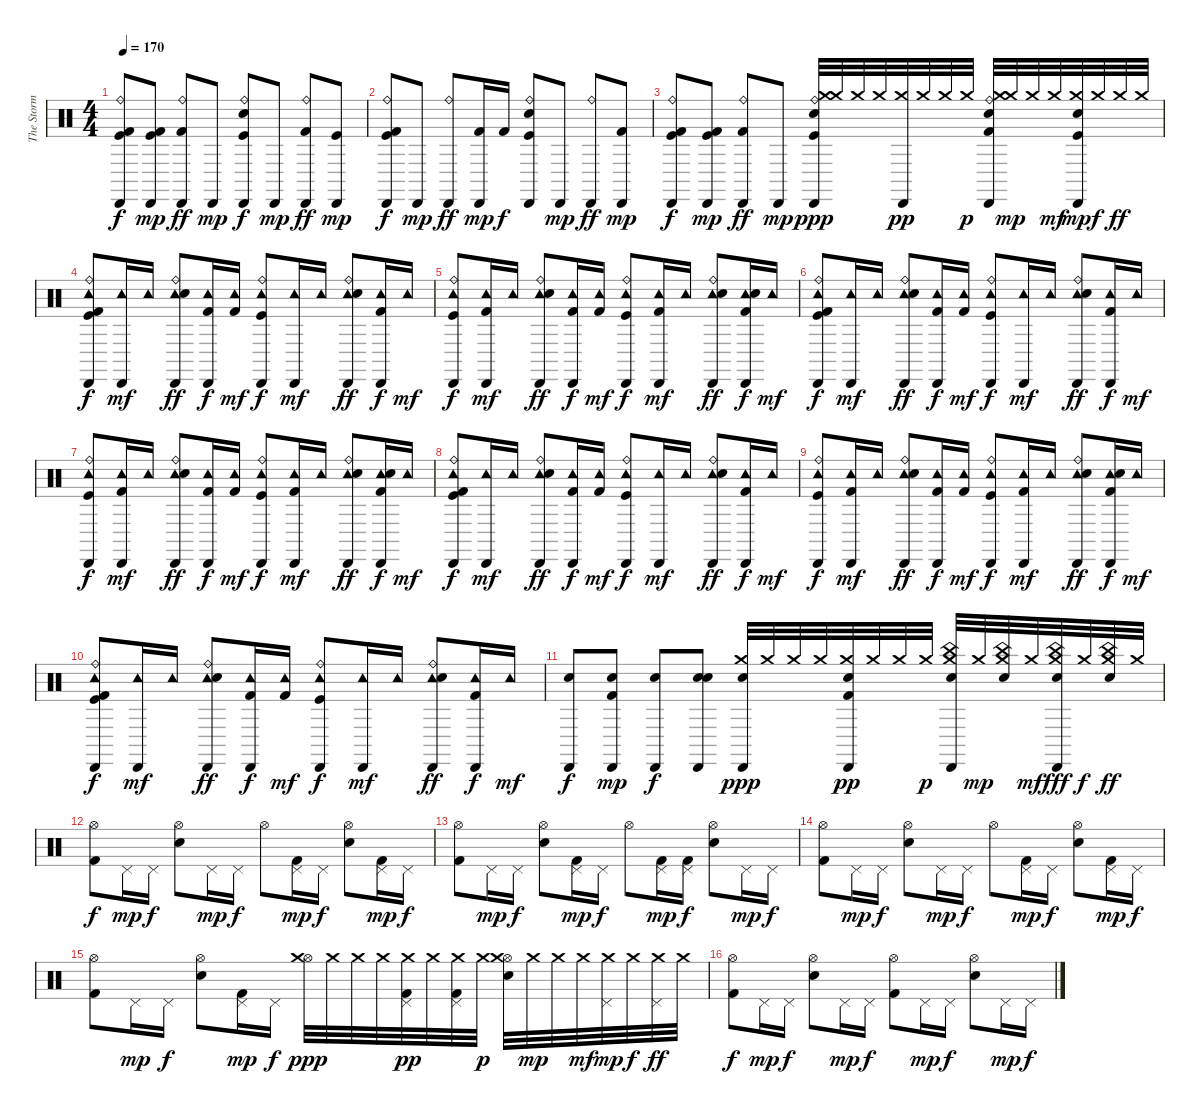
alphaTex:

\track ("The Storm" "The Storm") {instrument percussion}
\staff {score}
\articulation defaults
\ts (4 4)
\tempo 170
\clef neutral
\ks c
("Cabasa (hit)" "Kick (hit)" "Ride (bell)" "Kick (hit) 2").8{dy f} ("Cabasa (hit)" "Kick (hit) 2" "Kick (hit)").8{dy mp} ("Cabasa (hit)" "Kick (hit) 2" "Ride (bell)").8{dy ff} "Cabasa (hit)".8{dy mp} ("Cabasa (hit)" "Electric Snare (hit)" "Ride (bell)" "Kick (hit)").8{dy f} "Cabasa (hit)".8{dy mp} ("Cabasa (hit)" "Kick (hit) 2" "Ride (bell)").8{dy ff} ("Cabasa (hit)" "Kick (hit)").8{dy mp} |
("Cabasa (hit)" "Kick (hit) 2" "Ride (bell)" "Kick (hit)").8{dy f} "Cabasa (hit)".8{dy mp} ("Ride (bell)" "Cabasa (hit)").8{dy ff} ("Kick (hit) 2" "Cabasa (hit)").16{dy mp} "Kick (hit) 2".16{dy f} ("Cabasa (hit)" "Kick (hit)" "Electric Snare (hit)" "Ride (bell)").8 "Cabasa (hit)".8{dy mp} ("Cabasa (hit)" "Ride (bell)").8{dy ff} ("Cabasa (hit)" "Kick (hit) 2").8{dy mp} |
("Cabasa (hit)" "Kick (hit) 2" "Ride (bell)" "Kick (hit)").8{dy f} ("Cabasa (hit)" "Kick (hit) 2" "Kick (hit)").8{dy mp} ("Cabasa (hit)" "Ride (bell)" "Kick (hit) 2").8{dy ff} "Cabasa (hit)".8{dy mp} ("Electric Snare (hit)" "Ride (bell)" "Cabasa (hit)" "Kick (hit)" "Crash medium (hit)").32{dy ppp} "Crash medium (hit)".32 "Crash medium (hit)".32 "Crash medium (hit)".32 ("Cabasa (hit)" "Crash medium (hit)").32{dy pp} "Crash medium (hit)".32 "Crash medium (hit)".32 "Crash medium (hit)".32{dy p} ("Cabasa (hit)" "Electric Snare (hit)" "Kick (hit) 2" "Ride (bell)" "Crash medium (hit)").32 "Crash medium (hit)".32{dy mp} "Crash medium (hit)".32 "Crash medium (hit)".32{dy mf} ("Cabasa (hit)" "Kick (hit)" "Electric Snare (hit)" "Crash medium (hit)").32{dy mp} "Crash medium (hit)".32{dy f} "Crash medium (hit)".32{dy ff} "Crash medium (hit)".32 |
("Cabasa (hit)" "Tambourine (hit)" "Kick (hit) 2" "Ride (bell)" "Kick (hit)").8{dy f} ("Tambourine (hit)" "Cabasa (hit)").16{dy mf} "Tambourine (hit)".16 ("Tambourine (hit)" "Cabasa (hit)" "Ride (bell)" "Electric Snare (hit)").8{dy ff} ("Tambourine (hit)" "Cabasa (hit)" "Kick (hit) 2").16{dy f} ("Tambourine (hit)" "Kick (hit) 2").16{dy mf} ("Tambourine (hit)" "Kick (hit)" "Ride (bell)" "Cabasa (hit)").8{dy f} ("Tambourine (hit)" "Cabasa (hit)").16{dy mf} "Tambourine (hit)".16 ("Tambourine (hit)" "Ride (bell)" "Cabasa (hit)" "Electric Snare (hit)").8{dy ff} ("Tambourine (hit)" "Cabasa (hit)" "Kick (hit) 2").16{dy f} "Tambourine (hit)".16{dy mf} |
("Tambourine (hit)" "Kick (hit)" "Cabasa (hit)" "Ride (bell)").8{dy f} ("Tambourine (hit)" "Cabasa (hit)" "Kick (hit) 2").16{dy mf} "Tambourine (hit)".16 ("Tambourine (hit)" "Cabasa (hit)" "Ride (bell)" "Electric Snare (hit)").8{dy ff} ("Tambourine (hit)" "Cabasa (hit)" "Kick (hit) 2").16{dy f} ("Tambourine (hit)" "Kick (hit) 2").16{dy mf} ("Tambourine (hit)" "Kick (hit)" "Ride (bell)" "Cabasa (hit)").8{dy f} ("Tambourine (hit)" "Cabasa (hit)" "Kick (hit) 2").16{dy mf} "Tambourine (hit)".16 ("Tambourine (hit)" "Electric Snare (hit)" "Ride (bell)" "Cabasa (hit)").8{dy ff} ("Tambourine (hit)" "Cabasa (hit)" "Kick (hit) 2" "Electric Snare (hit)").16{dy f} "Tambourine (hit)".16{dy mf} |
("Cabasa (hit)" "Kick (hit)" "Tambourine (hit)" "Ride (bell)" "Kick (hit) 2").8{dy f} ("Cabasa (hit)" "Tambourine (hit)").16{dy mf} "Tambourine (hit)".16 ("Tambourine (hit)" "Cabasa (hit)" "Ride (bell)" "Electric Snare (hit)").8{dy ff} ("Tambourine (hit)" "Cabasa (hit)" "Kick (hit) 2").16{dy f} ("Tambourine (hit)" "Kick (hit) 2").16{dy mf} ("Tambourine (hit)" "Kick (hit)" "Ride (bell)" "Cabasa (hit)").8{dy f} ("Tambourine (hit)" "Cabasa (hit)").16{dy mf} "Tambourine (hit)".16 ("Tambourine (hit)" "Ride (bell)" "Cabasa (hit)" "Electric Snare (hit)").8{dy ff} ("Tambourine (hit)" "Cabasa (hit)" "Kick (hit) 2").16{dy f} "Tambourine (hit)".16{dy mf} |
("Tambourine (hit)" "Kick (hit)" "Cabasa (hit)" "Ride (bell)").8{dy f} ("Tambourine (hit)" "Cabasa (hit)" "Kick (hit) 2").16{dy mf} "Tambourine (hit)".16 ("Tambourine (hit)" "Cabasa (hit)" "Ride (bell)" "Electric Snare (hit)").8{dy ff} ("Tambourine (hit)" "Cabasa (hit)" "Kick (hit) 2").16{dy f} ("Tambourine (hit)" "Kick (hit) 2").16{dy mf} ("Tambourine (hit)" "Kick (hit)" "Ride (bell)" "Cabasa (hit)").8{dy f} ("Tambourine (hit)" "Cabasa (hit)" "Kick (hit) 2").16{dy mf} "Tambourine (hit)".16 ("Tambourine (hit)" "Electric Snare (hit)" "Ride (bell)" "Cabasa (hit)").8{dy ff} ("Tambourine (hit)" "Cabasa (hit)" "Kick (hit) 2" "Electric Snare (hit)").16{dy f} "Tambourine (hit)".16{dy mf} |
("Cabasa (hit)" "Tambourine (hit)" "Kick (hit) 2" "Ride (bell)" "Kick (hit)").8{dy f} ("Cabasa (hit)" "Tambourine (hit)").16{dy mf} "Tambourine (hit)".16 ("Tambourine (hit)" "Cabasa (hit)" "Ride (bell)" "Electric Snare (hit)").8{dy ff} ("Tambourine (hit)" "Cabasa (hit)" "Kick (hit) 2").16{dy f} ("Tambourine (hit)" "Kick (hit) 2").16{dy mf} ("Tambourine (hit)" "Kick (hit)" "Ride (bell)" "Cabasa (hit)").8{dy f} ("Tambourine (hit)" "Cabasa (hit)").16{dy mf} "Tambourine (hit)".16 ("Tambourine (hit)" "Ride (bell)" "Cabasa (hit)" "Electric Snare (hit)").8{dy ff} ("Tambourine (hit)" "Cabasa (hit)" "Kick (hit) 2").16{dy f} "Tambourine (hit)".16{dy mf} |
("Tambourine (hit)" "Kick (hit)" "Cabasa (hit)" "Ride (bell)").8{dy f} ("Tambourine (hit)" "Cabasa (hit)" "Kick (hit) 2").16{dy mf} "Tambourine (hit)".16 ("Tambourine (hit)" "Cabasa (hit)" "Ride (bell)" "Electric Snare (hit)").8{dy ff} ("Tambourine (hit)" "Cabasa (hit)" "Kick (hit) 2").16{dy f} ("Tambourine (hit)" "Kick (hit) 2").16{dy mf} ("Tambourine (hit)" "Kick (hit)" "Ride (bell)" "Cabasa (hit)").8{dy f} ("Tambourine (hit)" "Cabasa (hit)" "Kick (hit) 2").16{dy mf} "Tambourine (hit)".16 ("Tambourine (hit)" "Cabasa (hit)" "Ride (bell)" "Electric Snare (hit)").8{dy ff} ("Tambourine (hit)" "Electric Snare (hit)" "Cabasa (hit)" "Kick (hit) 2").16{dy f} "Tambourine (hit)".16{dy mf} |
("Kick (hit) 2" "Ride (bell)" "Cabasa (hit)" "Kick (hit)" "Tambourine (hit)").8{dy f} ("Tambourine (hit)" "Cabasa (hit)").16{dy mf} "Tambourine (hit)".16 ("Tambourine (hit)" "Electric Snare (hit)" "Ride (bell)" "Cabasa (hit)").8{dy ff} ("Tambourine (hit)" "Cabasa (hit)" "Kick (hit) 2").16{dy f} ("Kick (hit) 2" "Tambourine (hit)").16{dy mf} ("Ride (bell)" "Tambourine (hit)" "Kick (hit)" "Cabasa (hit)").8{dy f} ("Cabasa (hit)" "Tambourine (hit)").16{dy mf} "Tambourine (hit)".16 ("Tambourine (hit)" "Electric Snare (hit)" "Cabasa (hit)" "Ride (bell)").8{dy ff} ("Cabasa (hit)" "Tambourine (hit)" "Kick (hit) 2").16{dy f} "Tambourine (hit)".16{dy mf} |
("Cabasa (hit)" "Electric Snare (hit)").8{dy f} ("Cabasa (hit)" "Electric Snare (hit)" "Kick (hit) 2").8{dy mp} ("Electric Snare (hit)" "Cabasa (hit)").8{dy f} ("Snare (hit) 2" "Electric Snare (hit)" "Cabasa (hit)").8 ("Electric Snare (hit)" "Cabasa (hit)" "Crash medium (hit)").32{dy ppp} "Crash medium (hit)".32 "Crash medium (hit)".32 "Crash medium (hit)".32 ("Kick (hit) 2" "Electric Snare (hit)" "Cabasa (hit)" "Crash medium (hit)").32{dy pp} "Crash medium (hit)".32 "Crash medium (hit)".32 "Crash medium (hit)".32{dy p} ("Electric Snare (hit)" "Cabasa (hit)" "China (hit)" "Crash medium (hit)").32 "Crash medium (hit)".32{dy mp} ("Electric Snare (hit)" "China (hit)" "Crash medium (hit)").32 "Crash medium (hit)".32{dy mf} ("Electric Snare (hit)" "Cabasa (hit)" "China (hit)" "Crash medium (hit)").32{dy fff} "Crash medium (hit)".32{dy f} ("Electric Snare (hit)" "China (hit)" "Crash medium (hit)").32{dy ff} "Crash medium (hit)".32 |
("Kick (hit) 2" "Hi-Hat (open)").8{dy f} "Pedal Hi-Hat (hit)".16{dy mp} "Pedal Hi-Hat (hit)".16{dy f} ("Electric Snare (hit)" "Hi-Hat (open)").8 "Pedal Hi-Hat (hit)".16{dy mp} "Pedal Hi-Hat (hit)".16{dy f} "Hi-Hat (open)".8 ("Pedal Hi-Hat (hit)" "Kick (hit) 2").16{dy mp} "Pedal Hi-Hat (hit)".16{dy f} ("Electric Snare (hit)" "Hi-Hat (open)").8 ("Kick (hit) 2" "Pedal Hi-Hat (hit)").16{dy mp} "Pedal Hi-Hat (hit)".16{dy f} |
("Kick (hit) 2" "Hi-Hat (open)").8 "Pedal Hi-Hat (hit)".16{dy mp} "Pedal Hi-Hat (hit)".16{dy f} ("Hi-Hat (open)" "Electric Snare (hit)").8 ("Kick (hit) 2" "Pedal Hi-Hat (hit)").16{dy mp} "Pedal Hi-Hat (hit)".16{dy f} "Hi-Hat (open)".8 ("Pedal Hi-Hat (hit)" "Kick (hit) 2").16{dy mp} ("Pedal Hi-Hat (hit)" "Kick (hit) 2").16{dy f} ("Hi-Hat (open)" "Electric Snare (hit)").8 "Pedal Hi-Hat (hit)".16{dy mp} "Pedal Hi-Hat (hit)".16{dy f} |
("Kick (hit) 2" "Hi-Hat (open)").8 "Pedal Hi-Hat (hit)".16{dy mp} "Pedal Hi-Hat (hit)".16{dy f} ("Electric Snare (hit)" "Hi-Hat (open)").8 "Pedal Hi-Hat (hit)".16{dy mp} "Pedal Hi-Hat (hit)".16{dy f} "Hi-Hat (open)".8 ("Kick (hit) 2" "Pedal Hi-Hat (hit)").16{dy mp} "Pedal Hi-Hat (hit)".16{dy f} ("Hi-Hat (open)" "Electric Snare (hit)").8 ("Kick (hit) 2" "Pedal Hi-Hat (hit)").16{dy mp} "Pedal Hi-Hat (hit)".16{dy f} |
("Kick (hit) 2" "Hi-Hat (open)").8 "Pedal Hi-Hat (hit)".16{dy mp} "Pedal Hi-Hat (hit)".16{dy f} ("Electric Snare (hit)" "Hi-Hat (open)").8 ("Kick (hit) 2" "Pedal Hi-Hat (hit)").16{dy mp} "Pedal Hi-Hat (hit)".16{dy f} ("Hi-Hat (open)" "Crash medium (hit)").32{dy ppp} "Crash medium (hit)".32 "Crash medium (hit)".32 "Crash medium (hit)".32 ("Pedal Hi-Hat (hit)" "Kick (hit) 2" "Crash medium (hit)").32{dy pp} "Crash medium (hit)".32 ("Kick (hit) 2" "Pedal Hi-Hat (hit)" "Crash medium (hit)").32 "Crash medium (hit)".32{dy p} ("Hi-Hat (open)" "Electric Snare (hit)" "Crash medium (hit)").32 "Crash medium (hit)".32{dy mp} "Crash medium (hit)".32 "Crash medium (hit)".32{dy mf} ("Pedal Hi-Hat (hit)" "Crash medium (hit)").32{dy mp} "Crash medium (hit)".32{dy f} ("Pedal Hi-Hat (hit)" "Crash medium (hit)").32{dy ff} "Crash medium (hit)".32 |
("Hi-Hat (open)" "Kick (hit) 2").8{dy f} "Pedal Hi-Hat (hit)".16{dy mp} "Pedal Hi-Hat (hit)".16{dy f} ("Hi-Hat (open)" "Electric Snare (hit)").8 "Pedal Hi-Hat (hit)".16{dy mp} "Pedal Hi-Hat (hit)".16{dy f} ("Hi-Hat (open)" "Kick (hit) 2").8 "Pedal Hi-Hat (hit)".16{dy mp} "Pedal Hi-Hat (hit)".16{dy f} ("Electric Snare (hit)" "Hi-Hat (open)").8 "Pedal Hi-Hat (hit)".16{dy mp} "Pedal Hi-Hat (hit)".16{dy f}
